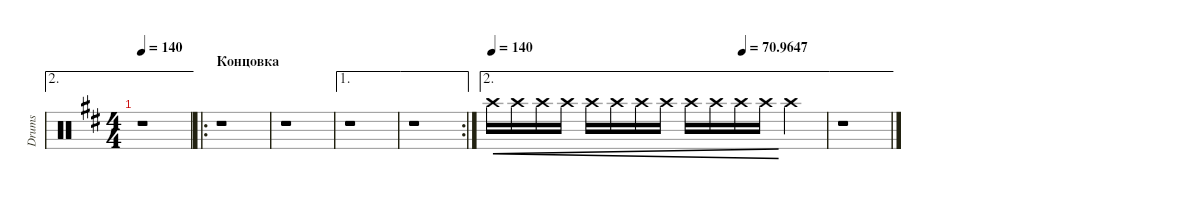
\defaultSystemsLayout 4
\hideDynamics
\bracketExtendMode groupsimilarinstruments
\singleTrackTrackNamePolicy allsystems
\multiTrackTrackNamePolicy allsystems
\otherSystemsTrackNameOrientation horizontal
\defaultBarNumberDisplay FirstOfSystem
\track ("Drumkit" "Drums") {instrument percussion}
\staff {score}
\articulation defaults
\ae 2
\ts (4 4)
\tempo 140
\clef neutral
\ks bminor
r.1{dy mp} |
\ro
\section ("" "Концовка")
r.1 |
r.1 |
\ae 1
r.1 |
\ae 1
\rc 2
r.1 |
\ae 2
\tempo 140
\tempo (70.9647 0.75)
"Crash high (hit)".16{cre} "Crash high (hit)".16{cre} "Crash high (hit)".16{cre} "Crash high (hit)".16{cre} "Crash high (hit)".16{cre} "Crash high (hit)".16{cre} "Crash high (hit)".16{cre} "Crash high (hit)".16{cre} "Crash high (hit)".16{cre} "Crash high (hit)".16{cre} "Crash high (hit)".16{cre} "Crash high (hit)".16{cre} "Crash high (hit)".4 |
\ae 2
r.1
